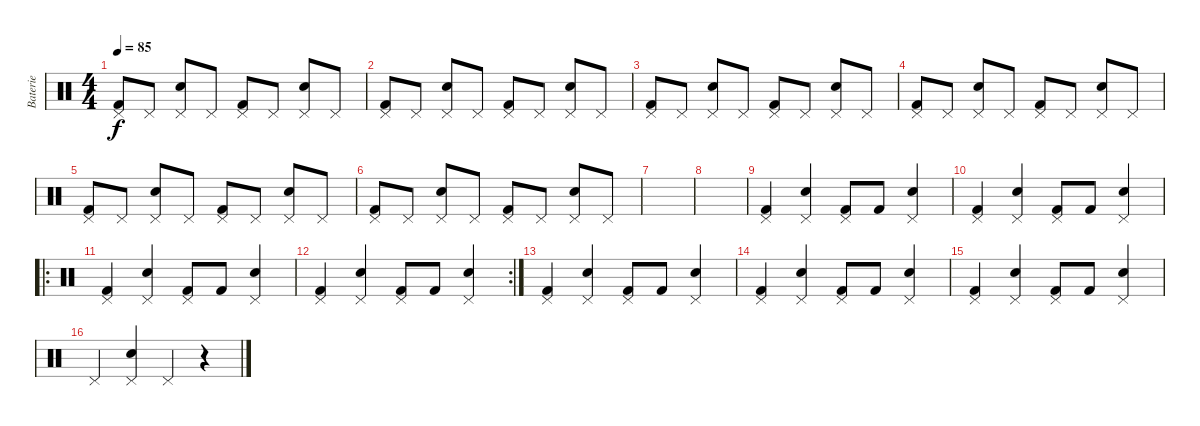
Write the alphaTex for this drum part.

\track ("Baterie" "Baterie") {instrument percussion}
\staff {score}
\articulation defaults
\ts (4 4)
\tempo 85
\clef neutral
\ks c
("Pedal Hi-Hat (hit)" "Kick (hit) 2").8{dy f} "Pedal Hi-Hat (hit)".8 ("Pedal Hi-Hat (hit)" "Electric Snare (hit)").8 "Pedal Hi-Hat (hit)".8 ("Pedal Hi-Hat (hit)" "Kick (hit) 2").8 "Pedal Hi-Hat (hit)".8 ("Pedal Hi-Hat (hit)" "Electric Snare (hit)").8 "Pedal Hi-Hat (hit)".8 |
("Pedal Hi-Hat (hit)" "Kick (hit) 2").8 "Pedal Hi-Hat (hit)".8 ("Pedal Hi-Hat (hit)" "Electric Snare (hit)").8 "Pedal Hi-Hat (hit)".8 ("Pedal Hi-Hat (hit)" "Kick (hit) 2").8 "Pedal Hi-Hat (hit)".8 ("Pedal Hi-Hat (hit)" "Electric Snare (hit)").8 "Pedal Hi-Hat (hit)".8 |
("Pedal Hi-Hat (hit)" "Kick (hit) 2").8 "Pedal Hi-Hat (hit)".8 ("Pedal Hi-Hat (hit)" "Electric Snare (hit)").8 "Pedal Hi-Hat (hit)".8 ("Pedal Hi-Hat (hit)" "Kick (hit) 2").8 "Pedal Hi-Hat (hit)".8 ("Pedal Hi-Hat (hit)" "Electric Snare (hit)").8 "Pedal Hi-Hat (hit)".8 |
("Pedal Hi-Hat (hit)" "Kick (hit) 2").8 "Pedal Hi-Hat (hit)".8 ("Pedal Hi-Hat (hit)" "Electric Snare (hit)").8 "Pedal Hi-Hat (hit)".8 ("Pedal Hi-Hat (hit)" "Kick (hit) 2").8 "Pedal Hi-Hat (hit)".8 ("Pedal Hi-Hat (hit)" "Electric Snare (hit)").8 "Pedal Hi-Hat (hit)".8 |
("Pedal Hi-Hat (hit)" "Kick (hit) 2").8 "Pedal Hi-Hat (hit)".8 ("Pedal Hi-Hat (hit)" "Electric Snare (hit)").8 "Pedal Hi-Hat (hit)".8 ("Pedal Hi-Hat (hit)" "Kick (hit) 2").8 "Pedal Hi-Hat (hit)".8 ("Pedal Hi-Hat (hit)" "Electric Snare (hit)").8 "Pedal Hi-Hat (hit)".8 |
("Pedal Hi-Hat (hit)" "Kick (hit) 2").8 "Pedal Hi-Hat (hit)".8 ("Pedal Hi-Hat (hit)" "Electric Snare (hit)").8 "Pedal Hi-Hat (hit)".8 ("Pedal Hi-Hat (hit)" "Kick (hit) 2").8 "Pedal Hi-Hat (hit)".8 ("Pedal Hi-Hat (hit)" "Electric Snare (hit)").8 "Pedal Hi-Hat (hit)".8 |
|
|
("Pedal Hi-Hat (hit)" "Kick (hit) 2").4 ("Pedal Hi-Hat (hit)" "Electric Snare (hit)").4 ("Pedal Hi-Hat (hit)" "Kick (hit) 2").8 "Kick (hit) 2".8 ("Pedal Hi-Hat (hit)" "Electric Snare (hit)").4 |
("Pedal Hi-Hat (hit)" "Kick (hit) 2").4 ("Pedal Hi-Hat (hit)" "Electric Snare (hit)").4 ("Pedal Hi-Hat (hit)" "Kick (hit) 2").8 "Kick (hit) 2".8 ("Pedal Hi-Hat (hit)" "Electric Snare (hit)").4 |
\ro
("Pedal Hi-Hat (hit)" "Kick (hit) 2").4 ("Pedal Hi-Hat (hit)" "Electric Snare (hit)").4 ("Pedal Hi-Hat (hit)" "Kick (hit) 2").8 "Kick (hit) 2".8 ("Pedal Hi-Hat (hit)" "Electric Snare (hit)").4 |
\rc 2
("Pedal Hi-Hat (hit)" "Kick (hit) 2").4 ("Pedal Hi-Hat (hit)" "Electric Snare (hit)").4 ("Pedal Hi-Hat (hit)" "Kick (hit) 2").8 "Kick (hit) 2".8 ("Pedal Hi-Hat (hit)" "Electric Snare (hit)").4 |
("Pedal Hi-Hat (hit)" "Kick (hit) 2").4 ("Pedal Hi-Hat (hit)" "Electric Snare (hit)").4 ("Pedal Hi-Hat (hit)" "Kick (hit) 2").8 "Kick (hit) 2".8 ("Pedal Hi-Hat (hit)" "Electric Snare (hit)").4 |
("Pedal Hi-Hat (hit)" "Kick (hit) 2").4 ("Pedal Hi-Hat (hit)" "Electric Snare (hit)").4 ("Pedal Hi-Hat (hit)" "Kick (hit) 2").8 "Kick (hit) 2".8 ("Pedal Hi-Hat (hit)" "Electric Snare (hit)").4 |
("Pedal Hi-Hat (hit)" "Kick (hit) 2").4 ("Pedal Hi-Hat (hit)" "Electric Snare (hit)").4 ("Pedal Hi-Hat (hit)" "Kick (hit) 2").8 "Kick (hit) 2".8 ("Pedal Hi-Hat (hit)" "Electric Snare (hit)").4 |
"Pedal Hi-Hat (hit)".4 ("Pedal Hi-Hat (hit)" "Electric Snare (hit)").4 "Pedal Hi-Hat (hit)".4 r.4
